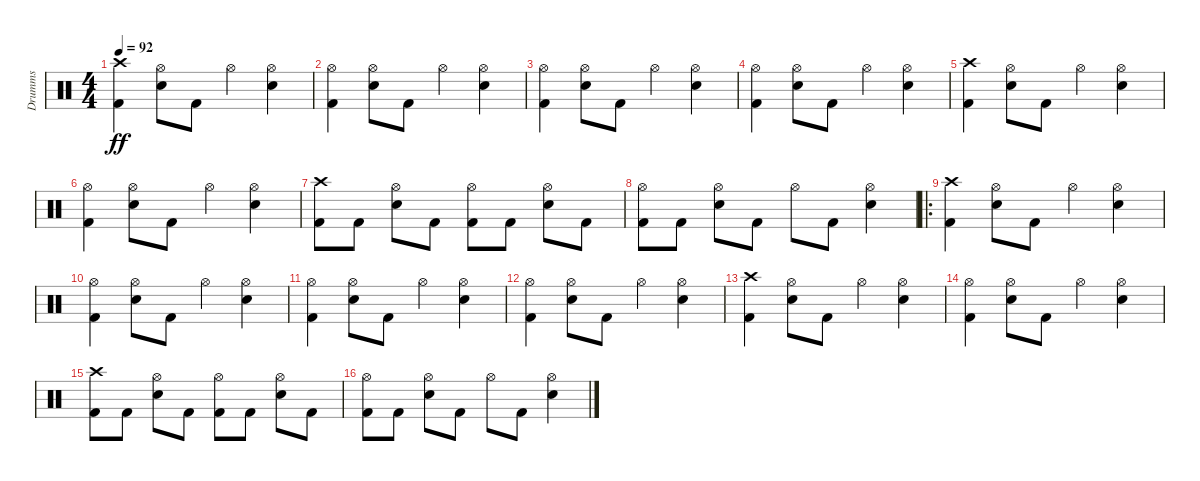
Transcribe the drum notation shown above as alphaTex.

\track ("Drumms" "Drumms") {instrument percussion}
\staff {score}
\articulation defaults
\ts (4 4)
\tempo 92
\clef neutral
\ks c
("Crash high (hit)" "Kick (hit) 2").4{dy ff} ("Hi-Hat (open)" "Electric Snare (hit)").8 "Kick (hit) 2".8 "Hi-Hat (open)".4 ("Hi-Hat (open)" "Electric Snare (hit)").4 |
("Hi-Hat (open)" "Kick (hit) 2").4 ("Hi-Hat (open)" "Electric Snare (hit)").8 "Kick (hit) 2".8 "Hi-Hat (open)".4 ("Hi-Hat (open)" "Electric Snare (hit)").4 |
("Hi-Hat (open)" "Kick (hit) 2").4 ("Hi-Hat (open)" "Electric Snare (hit)").8 "Kick (hit) 2".8 "Hi-Hat (open)".4 ("Hi-Hat (open)" "Electric Snare (hit)").4 |
("Hi-Hat (open)" "Kick (hit) 2").4 ("Hi-Hat (open)" "Electric Snare (hit)").8 "Kick (hit) 2".8 "Hi-Hat (open)".4 ("Hi-Hat (open)" "Electric Snare (hit)").4 |
("Crash high (hit)" "Kick (hit) 2").4 ("Hi-Hat (open)" "Electric Snare (hit)").8 "Kick (hit) 2".8 "Hi-Hat (open)".4 ("Hi-Hat (open)" "Electric Snare (hit)").4 |
("Hi-Hat (open)" "Kick (hit) 2").4 ("Hi-Hat (open)" "Electric Snare (hit)").8 "Kick (hit) 2".8 "Hi-Hat (open)".4 ("Hi-Hat (open)" "Electric Snare (hit)").4 |
("Crash high (hit)" "Kick (hit) 2").8 "Kick (hit) 2".8 ("Hi-Hat (open)" "Electric Snare (hit)").8 "Kick (hit) 2".8 ("Hi-Hat (open)" "Kick (hit) 2").8 "Kick (hit) 2".8 ("Hi-Hat (open)" "Electric Snare (hit)").8 "Kick (hit) 2".8 |
("Hi-Hat (open)" "Kick (hit) 2").8 "Kick (hit) 2".8 ("Hi-Hat (open)" "Electric Snare (hit)").8 "Kick (hit) 2".8 "Hi-Hat (open)".8 "Kick (hit) 2".8 ("Hi-Hat (open)" "Electric Snare (hit)").4 |
\ro
("Crash high (hit)" "Kick (hit) 2").4 ("Hi-Hat (open)" "Electric Snare (hit)").8 "Kick (hit) 2".8 "Hi-Hat (open)".4 ("Hi-Hat (open)" "Electric Snare (hit)").4 |
("Hi-Hat (open)" "Kick (hit) 2").4 ("Hi-Hat (open)" "Electric Snare (hit)").8 "Kick (hit) 2".8 "Hi-Hat (open)".4 ("Hi-Hat (open)" "Electric Snare (hit)").4 |
("Hi-Hat (open)" "Kick (hit) 2").4 ("Hi-Hat (open)" "Electric Snare (hit)").8 "Kick (hit) 2".8 "Hi-Hat (open)".4 ("Hi-Hat (open)" "Electric Snare (hit)").4 |
("Hi-Hat (open)" "Kick (hit) 2").4 ("Hi-Hat (open)" "Electric Snare (hit)").8 "Kick (hit) 2".8 "Hi-Hat (open)".4 ("Hi-Hat (open)" "Electric Snare (hit)").4 |
("Crash high (hit)" "Kick (hit) 2").4 ("Hi-Hat (open)" "Electric Snare (hit)").8 "Kick (hit) 2".8 "Hi-Hat (open)".4 ("Hi-Hat (open)" "Electric Snare (hit)").4 |
("Hi-Hat (open)" "Kick (hit) 2").4 ("Hi-Hat (open)" "Electric Snare (hit)").8 "Kick (hit) 2".8 "Hi-Hat (open)".4 ("Hi-Hat (open)" "Electric Snare (hit)").4 |
("Crash high (hit)" "Kick (hit) 2").8 "Kick (hit) 2".8 ("Hi-Hat (open)" "Electric Snare (hit)").8 "Kick (hit) 2".8 ("Hi-Hat (open)" "Kick (hit) 2").8 "Kick (hit) 2".8 ("Hi-Hat (open)" "Electric Snare (hit)").8 "Kick (hit) 2".8 |
("Hi-Hat (open)" "Kick (hit) 2").8 "Kick (hit) 2".8 ("Hi-Hat (open)" "Electric Snare (hit)").8 "Kick (hit) 2".8 "Hi-Hat (open)".8 "Kick (hit) 2".8 ("Hi-Hat (open)" "Electric Snare (hit)").4
